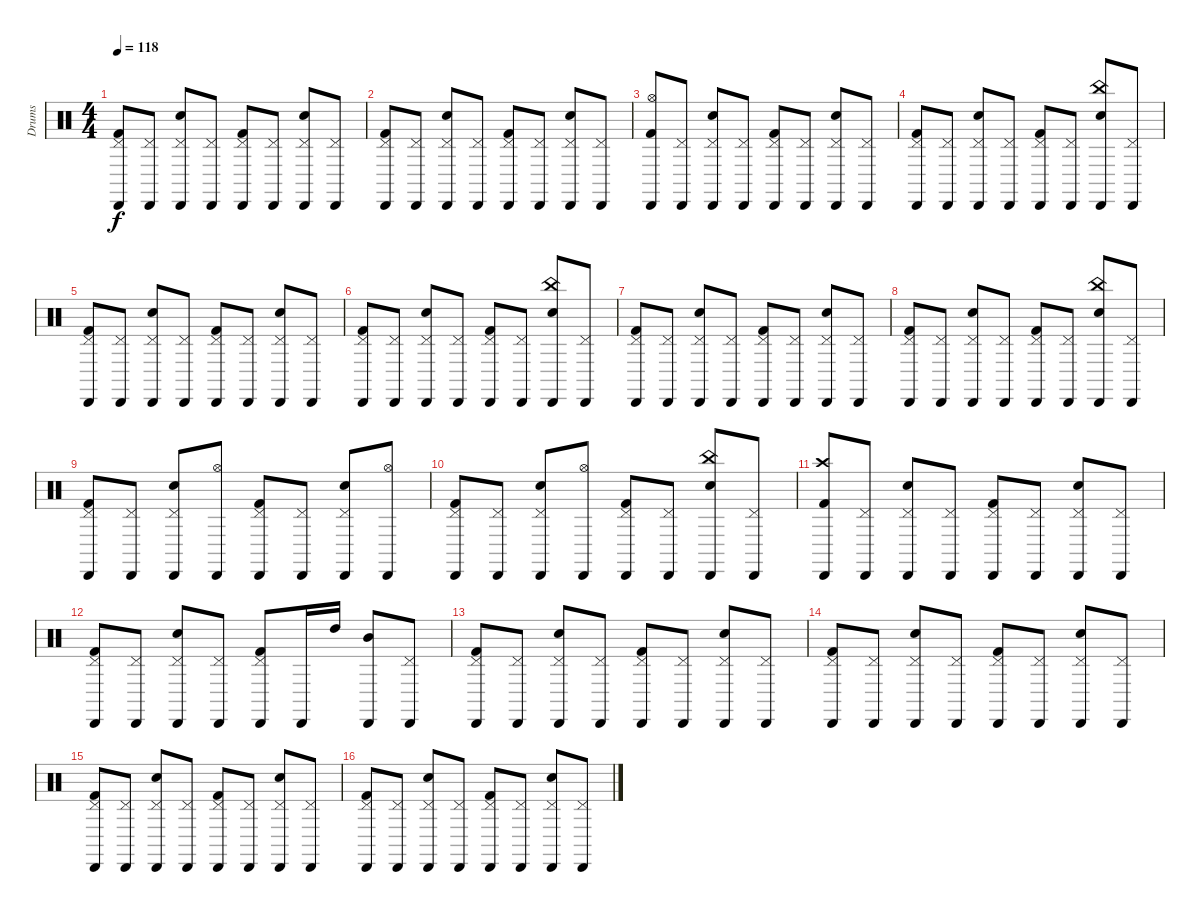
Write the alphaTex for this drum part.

\track ("Drums" "Drums") {instrument percussion}
\staff {score}
\articulation defaults
\ts (4 4)
\tempo 118
\clef neutral
\ks c
("Kick (hit) 2" "Pedal Hi-Hat (hit)" "Cabasa (hit)").8{dy f} ("Pedal Hi-Hat (hit)" "Cabasa (hit)").8 ("Pedal Hi-Hat (hit)" "Electric Snare (hit)" "Cabasa (hit)").8 ("Pedal Hi-Hat (hit)" "Cabasa (hit)").8 ("Kick (hit) 2" "Pedal Hi-Hat (hit)" "Cabasa (hit)").8 ("Pedal Hi-Hat (hit)" "Cabasa (hit)").8 ("Pedal Hi-Hat (hit)" "Electric Snare (hit)" "Cabasa (hit)").8 ("Pedal Hi-Hat (hit)" "Cabasa (hit)").8 |
("Kick (hit) 2" "Pedal Hi-Hat (hit)" "Cabasa (hit)").8 ("Pedal Hi-Hat (hit)" "Cabasa (hit)").8 ("Pedal Hi-Hat (hit)" "Electric Snare (hit)" "Cabasa (hit)").8 ("Pedal Hi-Hat (hit)" "Cabasa (hit)").8 ("Kick (hit) 2" "Pedal Hi-Hat (hit)" "Cabasa (hit)").8 ("Pedal Hi-Hat (hit)" "Cabasa (hit)").8 ("Pedal Hi-Hat (hit)" "Electric Snare (hit)" "Cabasa (hit)").8 ("Pedal Hi-Hat (hit)" "Cabasa (hit)").8 |
("Kick (hit) 2" "Hi-Hat (open)" "Cabasa (hit)").8 ("Pedal Hi-Hat (hit)" "Cabasa (hit)").8 ("Pedal Hi-Hat (hit)" "Electric Snare (hit)" "Cabasa (hit)").8 ("Pedal Hi-Hat (hit)" "Cabasa (hit)").8 ("Kick (hit) 2" "Pedal Hi-Hat (hit)" "Cabasa (hit)").8 ("Pedal Hi-Hat (hit)" "Cabasa (hit)").8 ("Pedal Hi-Hat (hit)" "Electric Snare (hit)" "Cabasa (hit)").8 ("Pedal Hi-Hat (hit)" "Cabasa (hit)").8 |
("Kick (hit) 2" "Pedal Hi-Hat (hit)" "Cabasa (hit)").8 ("Pedal Hi-Hat (hit)" "Cabasa (hit)").8 ("Pedal Hi-Hat (hit)" "Electric Snare (hit)" "Cabasa (hit)").8 ("Pedal Hi-Hat (hit)" "Cabasa (hit)").8 ("Kick (hit) 2" "Pedal Hi-Hat (hit)" "Cabasa (hit)").8 ("Pedal Hi-Hat (hit)" "Cabasa (hit)").8 ("China (hit)" "Electric Snare (hit)" "Cabasa (hit)").8 ("Pedal Hi-Hat (hit)" "Cabasa (hit)").8 |
("Kick (hit) 2" "Pedal Hi-Hat (hit)" "Cabasa (hit)").8 ("Pedal Hi-Hat (hit)" "Cabasa (hit)").8 ("Pedal Hi-Hat (hit)" "Electric Snare (hit)" "Cabasa (hit)").8 ("Pedal Hi-Hat (hit)" "Cabasa (hit)").8 ("Kick (hit) 2" "Pedal Hi-Hat (hit)" "Cabasa (hit)").8 ("Pedal Hi-Hat (hit)" "Cabasa (hit)").8 ("Pedal Hi-Hat (hit)" "Electric Snare (hit)" "Cabasa (hit)").8 ("Pedal Hi-Hat (hit)" "Cabasa (hit)").8 |
("Kick (hit) 2" "Pedal Hi-Hat (hit)" "Cabasa (hit)").8 ("Pedal Hi-Hat (hit)" "Cabasa (hit)").8 ("Pedal Hi-Hat (hit)" "Electric Snare (hit)" "Cabasa (hit)").8 ("Pedal Hi-Hat (hit)" "Cabasa (hit)").8 ("Kick (hit) 2" "Pedal Hi-Hat (hit)" "Cabasa (hit)").8 ("Pedal Hi-Hat (hit)" "Cabasa (hit)").8 ("China (hit)" "Electric Snare (hit)" "Cabasa (hit)").8 ("Pedal Hi-Hat (hit)" "Cabasa (hit)").8 |
("Kick (hit) 2" "Pedal Hi-Hat (hit)" "Cabasa (hit)").8 ("Pedal Hi-Hat (hit)" "Cabasa (hit)").8 ("Pedal Hi-Hat (hit)" "Electric Snare (hit)" "Cabasa (hit)").8 ("Pedal Hi-Hat (hit)" "Cabasa (hit)").8 ("Kick (hit) 2" "Pedal Hi-Hat (hit)" "Cabasa (hit)").8 ("Pedal Hi-Hat (hit)" "Cabasa (hit)").8 ("Pedal Hi-Hat (hit)" "Electric Snare (hit)" "Cabasa (hit)").8 ("Pedal Hi-Hat (hit)" "Cabasa (hit)").8 |
("Kick (hit) 2" "Pedal Hi-Hat (hit)" "Cabasa (hit)").8 ("Pedal Hi-Hat (hit)" "Cabasa (hit)").8 ("Pedal Hi-Hat (hit)" "Electric Snare (hit)" "Cabasa (hit)").8 ("Pedal Hi-Hat (hit)" "Cabasa (hit)").8 ("Kick (hit) 2" "Pedal Hi-Hat (hit)" "Cabasa (hit)").8 ("Pedal Hi-Hat (hit)" "Cabasa (hit)").8 ("China (hit)" "Electric Snare (hit)" "Cabasa (hit)").8 ("Pedal Hi-Hat (hit)" "Cabasa (hit)").8 |
("Kick (hit) 2" "Pedal Hi-Hat (hit)" "Cabasa (hit)").8 ("Pedal Hi-Hat (hit)" "Cabasa (hit)").8 ("Pedal Hi-Hat (hit)" "Electric Snare (hit)" "Cabasa (hit)").8 ("Hi-Hat (open)" "Cabasa (hit)").8 ("Kick (hit) 2" "Pedal Hi-Hat (hit)" "Cabasa (hit)").8 ("Pedal Hi-Hat (hit)" "Cabasa (hit)").8 ("Pedal Hi-Hat (hit)" "Electric Snare (hit)" "Cabasa (hit)").8 ("Hi-Hat (open)" "Cabasa (hit)").8 |
("Kick (hit) 2" "Pedal Hi-Hat (hit)" "Cabasa (hit)").8 ("Pedal Hi-Hat (hit)" "Cabasa (hit)").8 ("Pedal Hi-Hat (hit)" "Electric Snare (hit)" "Cabasa (hit)").8 ("Hi-Hat (open)" "Cabasa (hit)").8 ("Kick (hit) 2" "Pedal Hi-Hat (hit)" "Cabasa (hit)").8 ("Pedal Hi-Hat (hit)" "Cabasa (hit)").8 ("China (hit)" "Electric Snare (hit)" "Cabasa (hit)").8 ("Pedal Hi-Hat (hit)" "Cabasa (hit)").8 |
("Kick (hit) 2" "Crash high (hit)" "Cabasa (hit)").8 ("Pedal Hi-Hat (hit)" "Cabasa (hit)").8 ("Pedal Hi-Hat (hit)" "Electric Snare (hit)" "Cabasa (hit)").8 ("Pedal Hi-Hat (hit)" "Cabasa (hit)").8 ("Kick (hit) 2" "Pedal Hi-Hat (hit)" "Cabasa (hit)").8 ("Pedal Hi-Hat (hit)" "Cabasa (hit)").8 ("Pedal Hi-Hat (hit)" "Electric Snare (hit)" "Cabasa (hit)").8 ("Pedal Hi-Hat (hit)" "Cabasa (hit)").8 |
("Kick (hit) 2" "Pedal Hi-Hat (hit)" "Cabasa (hit)").8 ("Pedal Hi-Hat (hit)" "Cabasa (hit)").8 ("Pedal Hi-Hat (hit)" "Electric Snare (hit)" "Cabasa (hit)").8 ("Pedal Hi-Hat (hit)" "Cabasa (hit)").8 ("Kick (hit) 2" "Pedal Hi-Hat (hit)" "Cabasa (hit)").8 "Cabasa (hit)".16 "High Tom (hit)".16 ("Mid Tom (hit)" "Cabasa (hit)").8 ("Pedal Hi-Hat (hit)" "Cabasa (hit)").8 |
("Kick (hit) 2" "Pedal Hi-Hat (hit)" "Cabasa (hit)").8 ("Pedal Hi-Hat (hit)" "Cabasa (hit)").8 ("Pedal Hi-Hat (hit)" "Electric Snare (hit)" "Cabasa (hit)").8 ("Pedal Hi-Hat (hit)" "Cabasa (hit)").8 ("Kick (hit) 2" "Pedal Hi-Hat (hit)" "Cabasa (hit)").8 ("Pedal Hi-Hat (hit)" "Cabasa (hit)").8 ("Pedal Hi-Hat (hit)" "Electric Snare (hit)" "Cabasa (hit)").8 ("Pedal Hi-Hat (hit)" "Cabasa (hit)").8 |
("Kick (hit) 2" "Pedal Hi-Hat (hit)" "Cabasa (hit)").8 ("Pedal Hi-Hat (hit)" "Cabasa (hit)").8 ("Pedal Hi-Hat (hit)" "Electric Snare (hit)" "Cabasa (hit)").8 ("Pedal Hi-Hat (hit)" "Cabasa (hit)").8 ("Kick (hit) 2" "Pedal Hi-Hat (hit)" "Cabasa (hit)").8 ("Pedal Hi-Hat (hit)" "Cabasa (hit)").8 ("Pedal Hi-Hat (hit)" "Electric Snare (hit)" "Cabasa (hit)").8 ("Pedal Hi-Hat (hit)" "Cabasa (hit)").8 |
("Kick (hit) 2" "Pedal Hi-Hat (hit)" "Cabasa (hit)").8 ("Pedal Hi-Hat (hit)" "Cabasa (hit)").8 ("Pedal Hi-Hat (hit)" "Electric Snare (hit)" "Cabasa (hit)").8 ("Pedal Hi-Hat (hit)" "Cabasa (hit)").8 ("Kick (hit) 2" "Pedal Hi-Hat (hit)" "Cabasa (hit)").8 ("Pedal Hi-Hat (hit)" "Cabasa (hit)").8 ("Pedal Hi-Hat (hit)" "Electric Snare (hit)" "Cabasa (hit)").8 ("Pedal Hi-Hat (hit)" "Cabasa (hit)").8 |
("Kick (hit) 2" "Pedal Hi-Hat (hit)" "Cabasa (hit)").8 ("Pedal Hi-Hat (hit)" "Cabasa (hit)").8 ("Pedal Hi-Hat (hit)" "Electric Snare (hit)" "Cabasa (hit)").8 ("Pedal Hi-Hat (hit)" "Cabasa (hit)").8 ("Kick (hit) 2" "Pedal Hi-Hat (hit)" "Cabasa (hit)").8 ("Pedal Hi-Hat (hit)" "Cabasa (hit)").8 ("Pedal Hi-Hat (hit)" "Electric Snare (hit)" "Cabasa (hit)").8 ("Pedal Hi-Hat (hit)" "Cabasa (hit)").8
